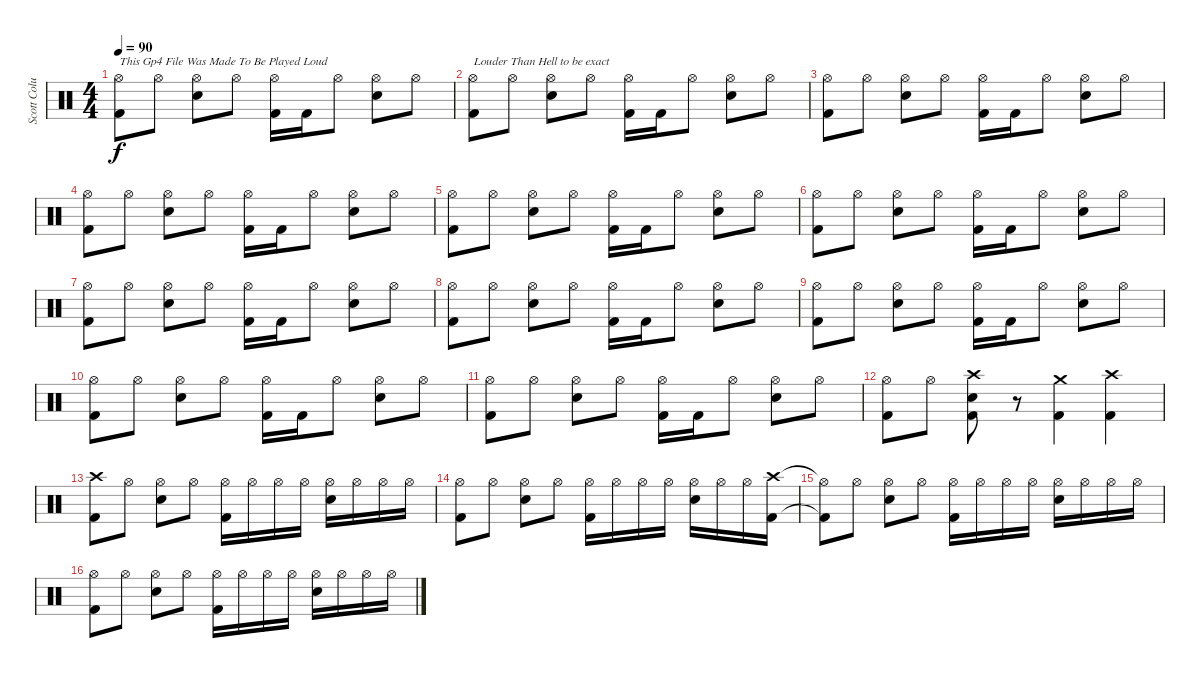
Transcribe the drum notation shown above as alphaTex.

\track ("Scott Columbus" "Scott Colu") {instrument percussion}
\staff {score}
\articulation defaults
\ts (4 4)
\tempo 90
\clef neutral
\ks c
("Hi-Hat (open)" "Kick (hit) 2").8{txt "This Gp4 File Was Made To Be Played Loud" dy f} "Hi-Hat (open)".8 ("Hi-Hat (open)" "Snare (hit) 2").8 "Hi-Hat (open)".8 ("Hi-Hat (open)" "Kick (hit) 2").16 "Kick (hit) 2".16 "Hi-Hat (open)".8 ("Hi-Hat (open)" "Snare (hit) 2").8 "Hi-Hat (open)".8 |
("Hi-Hat (open)" "Kick (hit) 2").8{txt "Louder Than Hell to be exact"} "Hi-Hat (open)".8 ("Hi-Hat (open)" "Snare (hit) 2").8 "Hi-Hat (open)".8 ("Hi-Hat (open)" "Kick (hit) 2").16 "Kick (hit) 2".16 "Hi-Hat (open)".8 ("Hi-Hat (open)" "Snare (hit) 2").8 "Hi-Hat (open)".8 |
("Hi-Hat (open)" "Kick (hit) 2").8 "Hi-Hat (open)".8 ("Hi-Hat (open)" "Snare (hit) 2").8 "Hi-Hat (open)".8 ("Hi-Hat (open)" "Kick (hit) 2").16 "Kick (hit) 2".16 "Hi-Hat (open)".8 ("Hi-Hat (open)" "Snare (hit) 2").8 "Hi-Hat (open)".8 |
("Hi-Hat (open)" "Kick (hit) 2").8 "Hi-Hat (open)".8 ("Hi-Hat (open)" "Snare (hit) 2").8 "Hi-Hat (open)".8 ("Hi-Hat (open)" "Kick (hit) 2").16 "Kick (hit) 2".16 "Hi-Hat (open)".8 ("Hi-Hat (open)" "Snare (hit) 2").8 "Hi-Hat (open)".8 |
("Hi-Hat (open)" "Kick (hit) 2").8 "Hi-Hat (open)".8 ("Hi-Hat (open)" "Snare (hit) 2").8 "Hi-Hat (open)".8 ("Hi-Hat (open)" "Kick (hit) 2").16 "Kick (hit) 2".16 "Hi-Hat (open)".8 ("Hi-Hat (open)" "Snare (hit) 2").8 "Hi-Hat (open)".8 |
("Hi-Hat (open)" "Kick (hit) 2").8 "Hi-Hat (open)".8 ("Hi-Hat (open)" "Snare (hit) 2").8 "Hi-Hat (open)".8 ("Hi-Hat (open)" "Kick (hit) 2").16 "Kick (hit) 2".16 "Hi-Hat (open)".8 ("Hi-Hat (open)" "Snare (hit) 2").8 "Hi-Hat (open)".8 |
("Hi-Hat (open)" "Kick (hit) 2").8 "Hi-Hat (open)".8 ("Hi-Hat (open)" "Snare (hit) 2").8 "Hi-Hat (open)".8 ("Hi-Hat (open)" "Kick (hit) 2").16 "Kick (hit) 2".16 "Hi-Hat (open)".8 ("Hi-Hat (open)" "Snare (hit) 2").8 "Hi-Hat (open)".8 |
("Hi-Hat (open)" "Kick (hit) 2").8 "Hi-Hat (open)".8 ("Hi-Hat (open)" "Snare (hit) 2").8 "Hi-Hat (open)".8 ("Hi-Hat (open)" "Kick (hit) 2").16 "Kick (hit) 2".16 "Hi-Hat (open)".8 ("Hi-Hat (open)" "Snare (hit) 2").8 "Hi-Hat (open)".8 |
("Hi-Hat (open)" "Kick (hit) 2").8 "Hi-Hat (open)".8 ("Hi-Hat (open)" "Snare (hit) 2").8 "Hi-Hat (open)".8 ("Hi-Hat (open)" "Kick (hit) 2").16 "Kick (hit) 2".16 "Hi-Hat (open)".8 ("Hi-Hat (open)" "Snare (hit) 2").8 "Hi-Hat (open)".8 |
("Hi-Hat (open)" "Kick (hit) 2").8 "Hi-Hat (open)".8 ("Hi-Hat (open)" "Snare (hit) 2").8 "Hi-Hat (open)".8 ("Hi-Hat (open)" "Kick (hit) 2").16 "Kick (hit) 2".16 "Hi-Hat (open)".8 ("Hi-Hat (open)" "Snare (hit) 2").8 "Hi-Hat (open)".8 |
("Hi-Hat (open)" "Kick (hit) 2").8 "Hi-Hat (open)".8 ("Hi-Hat (open)" "Snare (hit) 2").8 "Hi-Hat (open)".8 ("Hi-Hat (open)" "Kick (hit) 2").16 "Kick (hit) 2".16 "Hi-Hat (open)".8 ("Hi-Hat (open)" "Snare (hit) 2").8 "Hi-Hat (open)".8 |
("Hi-Hat (open)" "Kick (hit) 2").8 "Hi-Hat (open)".8 ("Crash high (hit)" "Snare (hit) 2" "Kick (hit) 2").8 r.8 ("Crash medium (hit)" "Kick (hit) 2").4 ("Crash high (hit)" "Kick (hit) 2").4 |
("Crash high (hit)" "Kick (hit) 2").8 "Hi-Hat (open)".8 ("Hi-Hat (open)" "Snare (hit) 2").8 "Hi-Hat (open)".8 ("Hi-Hat (open)" "Kick (hit) 2").16 "Hi-Hat (open)".16 "Hi-Hat (open)".16 "Hi-Hat (open)".16 ("Hi-Hat (open)" "Snare (hit) 2").16 "Hi-Hat (open)".16 "Hi-Hat (open)".16 "Hi-Hat (open)".16 |
("Hi-Hat (open)" "Kick (hit) 2").8 "Hi-Hat (open)".8 ("Hi-Hat (open)" "Snare (hit) 2").8 "Hi-Hat (open)".8 ("Hi-Hat (open)" "Kick (hit) 2").16 "Hi-Hat (open)".16 "Hi-Hat (open)".16 "Hi-Hat (open)".16 ("Hi-Hat (open)" "Snare (hit) 2").16 "Hi-Hat (open)".16 "Hi-Hat (open)".16 ("Crash high (hit)" "Kick (hit) 2").16 |
("Hi-Hat (open)"{t} "Kick (hit) 2"{t}).8 "Hi-Hat (open)".8 ("Hi-Hat (open)" "Snare (hit) 2").8 "Hi-Hat (open)".8 ("Hi-Hat (open)" "Kick (hit) 2").16 "Hi-Hat (open)".16 "Hi-Hat (open)".16 "Hi-Hat (open)".16 ("Hi-Hat (open)" "Snare (hit) 2").16 "Hi-Hat (open)".16 "Hi-Hat (open)".16 "Hi-Hat (open)".16 |
("Hi-Hat (open)" "Kick (hit) 2").8 "Hi-Hat (open)".8 ("Hi-Hat (open)" "Snare (hit) 2").8 "Hi-Hat (open)".8 ("Hi-Hat (open)" "Kick (hit) 2").16 "Hi-Hat (open)".16 "Hi-Hat (open)".16 "Hi-Hat (open)".16 ("Hi-Hat (open)" "Snare (hit) 2").16 "Hi-Hat (open)".16 "Hi-Hat (open)".16 "Hi-Hat (open)".16
